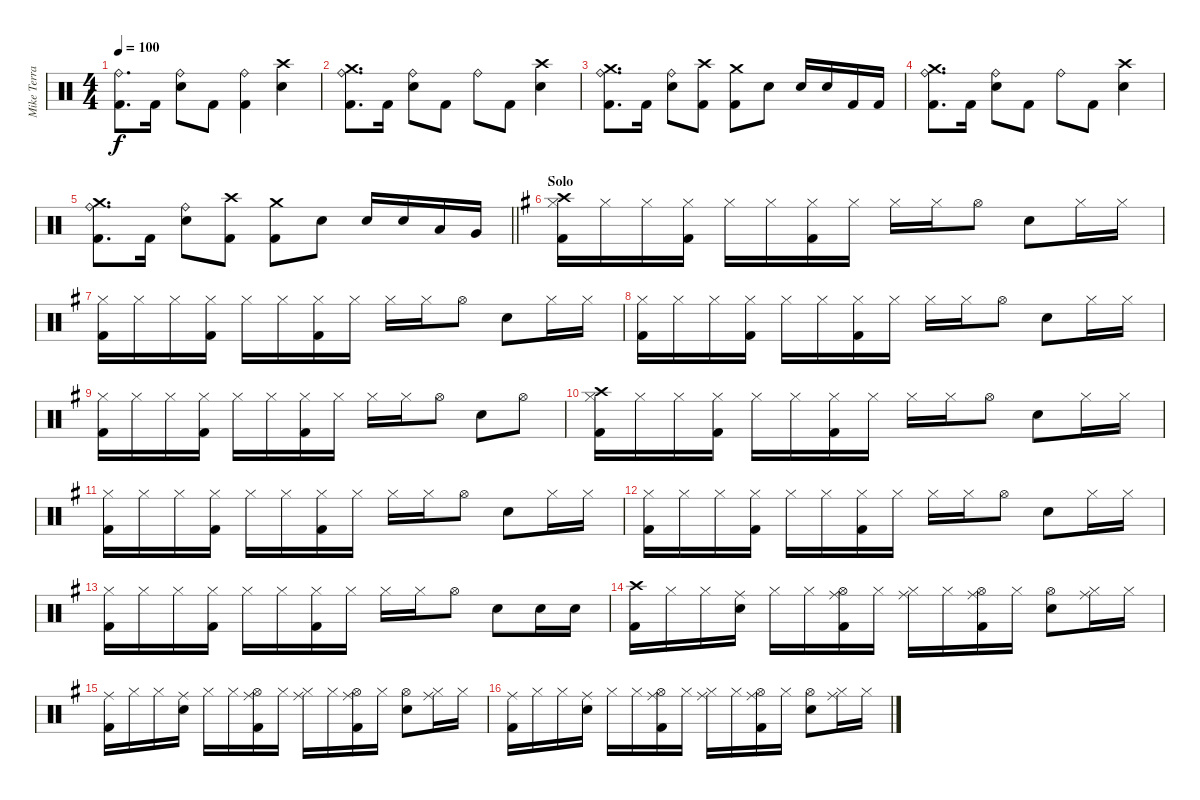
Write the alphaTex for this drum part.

\track ("Mike Terrana" "Mike Terra") {instrument percussion}
\staff {score}
\articulation defaults
\ts (4 4)
\tempo 100
\clef neutral
\ks c
("Ride (bell)" "Kick (hit) 2").8{d dy f} "Kick (hit) 2".16 ("Ride (bell)" "Snare (hit) 2").8 "Kick (hit) 2".8 ("Ride (bell)" "Kick (hit) 2").4 ("Crash high (hit)" "Snare (hit) 2").4 |
("Crash medium (hit)" "Ride (bell)" "Kick (hit) 2").8{d} "Kick (hit) 2".16 ("Ride (bell)" "Snare (hit) 2").8 "Kick (hit) 2".8 "Ride (bell)".8 "Kick (hit) 2".8 ("Crash high (hit)" "Snare (hit) 2").4 |
("Crash medium (hit)" "Ride (bell)" "Kick (hit) 2").8{d} "Kick (hit) 2".16 ("Ride (bell)" "Snare (hit) 2").8 ("Crash high (hit)" "Kick (hit) 2").8 ("Crash medium (hit)" "Kick (hit) 2").8 "Snare (hit) 2".8 "Snare (hit) 2".16 "Snare (hit) 2".16 "Kick (hit) 2".16 "Kick (hit) 2".16 |
("Crash medium (hit)" "Ride (bell)" "Kick (hit) 2").8{d} "Kick (hit) 2".16 ("Ride (bell)" "Snare (hit) 2").8 "Kick (hit) 2".8 "Ride (bell)".8 "Kick (hit) 2".8 ("Crash high (hit)" "Snare (hit) 2").4 |
\barLineRight lightlight
("Crash medium (hit)" "Ride (bell)" "Kick (hit) 2").8{d} "Kick (hit) 2".16 ("Ride (bell)" "Snare (hit) 2").8 ("Crash high (hit)" "Kick (hit) 2").8 ("Crash medium (hit)" "Kick (hit) 2").8 "Snare (hit) 2".8 "Snare (hit) 2".16 "Snare (hit) 2".16 "Low Tom (hit)".16 "Very Low Tom (hit)".16 |
\section ("" "Solo")
\ks eminor
("Crash high (hit)" "Hi-Hat (closed)" "Kick (hit) 2").16 "Hi-Hat (closed)".16 "Hi-Hat (closed)".16 ("Hi-Hat (closed)" "Kick (hit) 2").16 "Hi-Hat (closed)".16 "Hi-Hat (closed)".16 ("Hi-Hat (closed)" "Kick (hit) 2").16 "Hi-Hat (closed)".16 "Hi-Hat (closed)".16 "Hi-Hat (closed)".16 "Hi-Hat (open)".8 "Snare (hit) 2".8 "Hi-Hat (closed)".16 "Hi-Hat (closed)".16 |
("Hi-Hat (closed)" "Kick (hit) 2").16 "Hi-Hat (closed)".16 "Hi-Hat (closed)".16 ("Hi-Hat (closed)" "Kick (hit) 2").16 "Hi-Hat (closed)".16 "Hi-Hat (closed)".16 ("Hi-Hat (closed)" "Kick (hit) 2").16 "Hi-Hat (closed)".16 "Hi-Hat (closed)".16 "Hi-Hat (closed)".16 "Hi-Hat (open)".8 "Snare (hit) 2".8 "Hi-Hat (closed)".16 "Hi-Hat (closed)".16 |
("Hi-Hat (closed)" "Kick (hit) 2").16 "Hi-Hat (closed)".16 "Hi-Hat (closed)".16 ("Hi-Hat (closed)" "Kick (hit) 2").16 "Hi-Hat (closed)".16 "Hi-Hat (closed)".16 ("Hi-Hat (closed)" "Kick (hit) 2").16 "Hi-Hat (closed)".16 "Hi-Hat (closed)".16 "Hi-Hat (closed)".16 "Hi-Hat (open)".8 "Snare (hit) 2".8 "Hi-Hat (closed)".16 "Hi-Hat (closed)".16 |
("Hi-Hat (closed)" "Kick (hit) 2").16 "Hi-Hat (closed)".16 "Hi-Hat (closed)".16 ("Hi-Hat (closed)" "Kick (hit) 2").16 "Hi-Hat (closed)".16 "Hi-Hat (closed)".16 ("Hi-Hat (closed)" "Kick (hit) 2").16 "Hi-Hat (closed)".16 "Hi-Hat (closed)".16 "Hi-Hat (closed)".16 "Hi-Hat (open)".8 "Snare (hit) 2".8 "Hi-Hat (open)".8 |
("Crash high (hit)" "Hi-Hat (closed)" "Kick (hit) 2").16 "Hi-Hat (closed)".16 "Hi-Hat (closed)".16 ("Hi-Hat (closed)" "Kick (hit) 2").16 "Hi-Hat (closed)".16 "Hi-Hat (closed)".16 ("Hi-Hat (closed)" "Kick (hit) 2").16 "Hi-Hat (closed)".16 "Hi-Hat (closed)".16 "Hi-Hat (closed)".16 "Hi-Hat (open)".8 "Snare (hit) 2".8 "Hi-Hat (closed)".16 "Hi-Hat (closed)".16 |
("Hi-Hat (closed)" "Kick (hit) 2").16 "Hi-Hat (closed)".16 "Hi-Hat (closed)".16 ("Hi-Hat (closed)" "Kick (hit) 2").16 "Hi-Hat (closed)".16 "Hi-Hat (closed)".16 ("Hi-Hat (closed)" "Kick (hit) 2").16 "Hi-Hat (closed)".16 "Hi-Hat (closed)".16 "Hi-Hat (closed)".16 "Hi-Hat (open)".8 "Snare (hit) 2".8 "Hi-Hat (closed)".16 "Hi-Hat (closed)".16 |
("Hi-Hat (closed)" "Kick (hit) 2").16 "Hi-Hat (closed)".16 "Hi-Hat (closed)".16 ("Hi-Hat (closed)" "Kick (hit) 2").16 "Hi-Hat (closed)".16 "Hi-Hat (closed)".16 ("Hi-Hat (closed)" "Kick (hit) 2").16 "Hi-Hat (closed)".16 "Hi-Hat (closed)".16 "Hi-Hat (closed)".16 "Hi-Hat (open)".8 "Snare (hit) 2".8 "Hi-Hat (closed)".16 "Hi-Hat (closed)".16 |
("Hi-Hat (closed)" "Kick (hit) 2").16 "Hi-Hat (closed)".16 "Hi-Hat (closed)".16 ("Hi-Hat (closed)" "Kick (hit) 2").16 "Hi-Hat (closed)".16 "Hi-Hat (closed)".16 ("Hi-Hat (closed)" "Kick (hit) 2").16 "Hi-Hat (closed)".16 "Hi-Hat (closed)".16 "Hi-Hat (closed)".16 "Hi-Hat (open)".8 "Snare (hit) 2".8 "Snare (hit) 2".16 "Snare (hit) 2".16 |
("Crash high (hit)" "Kick (hit) 2").16 "Hi-Hat (closed)".16 "Hi-Hat (closed)".16 ("Ride (middle)" "Snare (hit) 2").16 "Hi-Hat (closed)".16 "Hi-Hat (closed)".16 ("Ride (middle)" "Hi-Hat (open)" "Kick (hit) 2").16 "Hi-Hat (closed)".16 ("Ride (middle)" "Hi-Hat (closed)").16 "Hi-Hat (closed)".16 ("Ride (middle)" "Hi-Hat (open)" "Kick (hit) 2").16 "Hi-Hat (closed)".16 ("Hi-Hat (open)" "Snare (hit) 2").8 ("Ride (middle)" "Hi-Hat (closed)").16 "Hi-Hat (closed)".16 |
("Ride (middle)" "Kick (hit) 2").16 "Hi-Hat (closed)".16 "Hi-Hat (closed)".16 ("Ride (middle)" "Snare (hit) 2").16 "Hi-Hat (closed)".16 "Hi-Hat (closed)".16 ("Ride (middle)" "Hi-Hat (open)" "Kick (hit) 2").16 "Hi-Hat (closed)".16 ("Ride (middle)" "Hi-Hat (closed)").16 "Hi-Hat (closed)".16 ("Ride (middle)" "Hi-Hat (open)" "Kick (hit) 2").16 "Hi-Hat (closed)".16 ("Hi-Hat (open)" "Snare (hit) 2").8 ("Ride (middle)" "Hi-Hat (closed)").16 "Hi-Hat (closed)".16 |
("Ride (middle)" "Kick (hit) 2").16 "Hi-Hat (closed)".16 "Hi-Hat (closed)".16 ("Ride (middle)" "Snare (hit) 2").16 "Hi-Hat (closed)".16 "Hi-Hat (closed)".16 ("Ride (middle)" "Hi-Hat (open)" "Kick (hit) 2").16 "Hi-Hat (closed)".16 ("Ride (middle)" "Hi-Hat (closed)").16 "Hi-Hat (closed)".16 ("Ride (middle)" "Hi-Hat (open)" "Kick (hit) 2").16 "Hi-Hat (closed)".16 ("Hi-Hat (open)" "Snare (hit) 2").8 ("Ride (middle)" "Hi-Hat (closed)").16 "Hi-Hat (closed)".16
